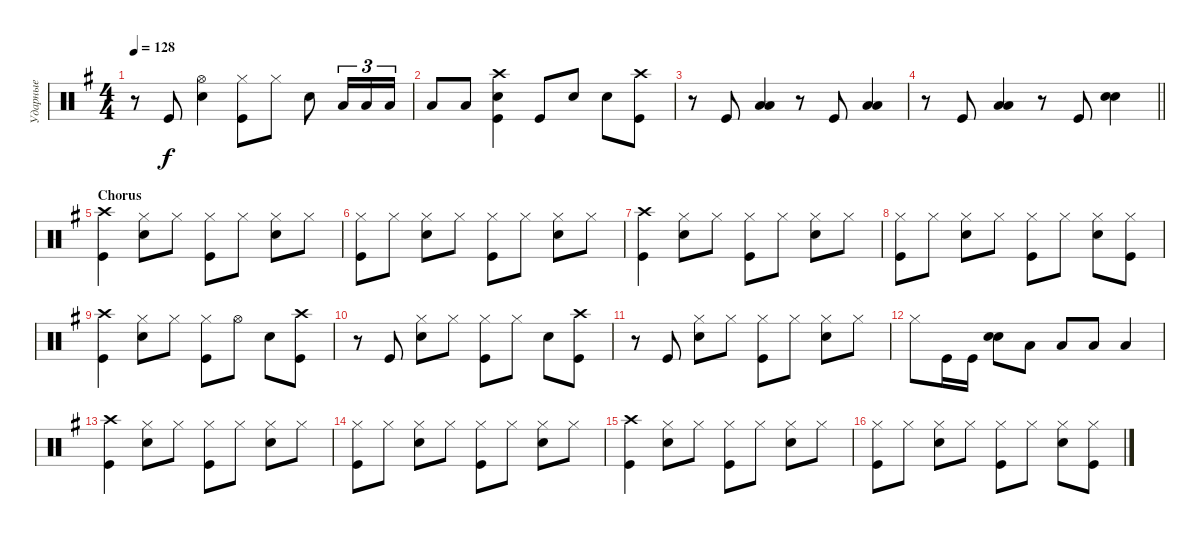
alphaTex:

\track ("Ударные" "Ударные") {instrument percussion}
\staff {score}
\articulation defaults
\ts (4 4)
\tempo 128
\clef neutral
\ks eminor
r.8{dy f} "Kick (hit)".8 ("Snare (hit) 2" "Hi-Hat (open)").4 ("Kick (hit)" "Hi-Hat (closed)").8 "Hi-Hat (closed)".8 "Snare (hit) 2".8 "Low Floor Tom (hit)".16{tu (3 2)} "Low Floor Tom (hit)".16{tu (3 2)} "Low Floor Tom (hit)".16{tu (3 2)} |
"Low Floor Tom (hit)".8 "Low Floor Tom (hit)".8 ("Kick (hit)" "Crash high (hit)" "Snare (hit) 2").4 "Kick (hit)".8 "Snare (hit) 2".8 "Snare (hit) 2".8 ("Kick (hit)" "Crash high (hit)").8 |
r.8 "Kick (hit)".8 ("Low Tom (hit)" "Low Tom (hit)").4{bd 240} r.8 "Kick (hit)".8 ("Low Tom (hit)" "Low Tom (hit)").4{bd 240} |
\barLineRight lightlight
r.8 "Kick (hit)".8 ("Low Tom (hit)" "Low Tom (hit)").4{bd 240} r.8 "Kick (hit)".8 ("Snare (hit) 2" "Snare (hit) 2").4{bd 240} |
\section ("" "Chorus")
("Crash high (hit)" "Kick (hit)").4 ("Hi-Hat (closed)" "Snare (hit) 2").8 "Hi-Hat (closed)".8 ("Hi-Hat (closed)" "Kick (hit)").8 "Hi-Hat (closed)".8 ("Hi-Hat (closed)" "Snare (hit) 2").8 "Hi-Hat (closed)".8 |
("Hi-Hat (closed)" "Kick (hit)").8 "Hi-Hat (closed)".8 ("Hi-Hat (closed)" "Snare (hit) 2").8 "Hi-Hat (closed)".8 ("Hi-Hat (closed)" "Kick (hit)").8 "Hi-Hat (closed)".8 ("Hi-Hat (closed)" "Snare (hit) 2").8 "Hi-Hat (closed)".8 |
("Crash high (hit)" "Kick (hit)").4 ("Hi-Hat (closed)" "Snare (hit) 2").8 "Hi-Hat (closed)".8 ("Hi-Hat (closed)" "Kick (hit)").8 "Hi-Hat (closed)".8 ("Hi-Hat (closed)" "Snare (hit) 2").8 "Hi-Hat (closed)".8 |
("Hi-Hat (closed)" "Kick (hit)").8 "Hi-Hat (closed)".8 ("Hi-Hat (closed)" "Snare (hit) 2").8 "Hi-Hat (closed)".8 ("Hi-Hat (closed)" "Kick (hit)").8 "Hi-Hat (closed)".8 ("Hi-Hat (closed)" "Snare (hit) 2").8 ("Hi-Hat (closed)" "Kick (hit)").8 |
("Crash high (hit)" "Kick (hit)").4 ("Hi-Hat (closed)" "Snare (hit) 2").8 "Hi-Hat (closed)".8 ("Hi-Hat (closed)" "Kick (hit)").8 "Hi-Hat (open)".8 "Snare (hit) 2".8 ("Kick (hit)" "Crash high (hit)").8 |
r.8 "Kick (hit)".8 ("Hi-Hat (closed)" "Snare (hit) 2").8 "Hi-Hat (closed)".8 ("Hi-Hat (closed)" "Kick (hit)").8 "Hi-Hat (closed)".8 "Snare (hit) 2".8 ("Kick (hit)" "Crash high (hit)").8 |
r.8 "Kick (hit)".8 ("Hi-Hat (closed)" "Snare (hit) 2").8 "Hi-Hat (closed)".8 ("Hi-Hat (closed)" "Kick (hit)").8 "Hi-Hat (closed)".8 ("Hi-Hat (closed)" "Snare (hit) 2").8 "Hi-Hat (closed)".8 |
"Hi-Hat (closed)".8 "Kick (hit)".16 "Kick (hit)".16 ("Snare (hit) 2" "Snare (hit) 2").8{bd 240} "Low Tom (hit)".8 "Low Tom (hit)".8 "Low Tom (hit)".8 "Low Tom (hit)".4 |
("Crash high (hit)" "Kick (hit)").4 ("Hi-Hat (closed)" "Snare (hit) 2").8 "Hi-Hat (closed)".8 ("Hi-Hat (closed)" "Kick (hit)").8 "Hi-Hat (closed)".8 ("Hi-Hat (closed)" "Snare (hit) 2").8 "Hi-Hat (closed)".8 |
("Hi-Hat (closed)" "Kick (hit)").8 "Hi-Hat (closed)".8 ("Hi-Hat (closed)" "Snare (hit) 2").8 "Hi-Hat (closed)".8 ("Hi-Hat (closed)" "Kick (hit)").8 "Hi-Hat (closed)".8 ("Hi-Hat (closed)" "Snare (hit) 2").8 "Hi-Hat (closed)".8 |
("Crash high (hit)" "Kick (hit)").4 ("Hi-Hat (closed)" "Snare (hit) 2").8 "Hi-Hat (closed)".8 ("Hi-Hat (closed)" "Kick (hit)").8 "Hi-Hat (closed)".8 ("Hi-Hat (closed)" "Snare (hit) 2").8 "Hi-Hat (closed)".8 |
("Hi-Hat (closed)" "Kick (hit)").8 "Hi-Hat (closed)".8 ("Hi-Hat (closed)" "Snare (hit) 2").8 "Hi-Hat (closed)".8 ("Hi-Hat (closed)" "Kick (hit)").8 "Hi-Hat (closed)".8 ("Hi-Hat (closed)" "Snare (hit) 2").8 ("Hi-Hat (closed)" "Kick (hit)").8
